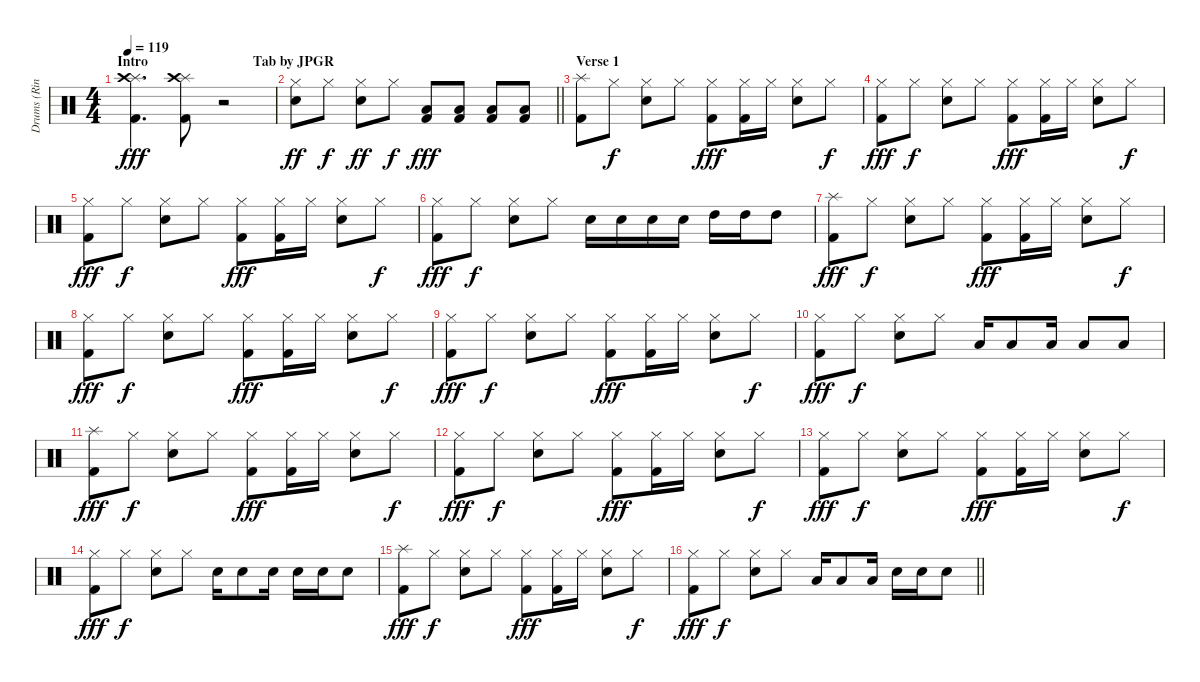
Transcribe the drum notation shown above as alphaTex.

\track ("Drums (Ringo Starr)" "Drums (Rin") {instrument percussion}
\staff {score}
\articulation defaults
\ts (4 4)
\section ("" "Intro                              Tab by JPGR")
\tempo 119
\clef neutral
\ks c
("Splash (hit)" "Crash high (hit)" "Kick (hit) 2").4{d dy fff} ("Splash (hit)" "Crash high (hit)" "Kick (hit) 2").8 r.2 |
\barLineRight lightlight
("Hi-Hat (closed)" "Snare (hit) 2").8{dy ff} "Hi-Hat (closed)".8{dy f} ("Hi-Hat (closed)" "Snare (hit) 2").8{dy ff} "Hi-Hat (closed)".8{dy f} ("Low Floor Tom (hit)" "Kick (hit) 2").8{dy fff} ("Low Floor Tom (hit)" "Kick (hit) 2").8 ("Low Floor Tom (hit)" "Kick (hit) 2").8 ("Low Floor Tom (hit)" "Kick (hit) 2").8 |
\section ("" "Verse 1")
("Splash (hit)" "Kick (hit) 2").8 "Hi-Hat (closed)".8{dy f} ("Hi-Hat (closed)" "Snare (hit) 2").8 "Hi-Hat (closed)".8 ("Hi-Hat (closed)" "Kick (hit) 2").8{dy fff} ("Hi-Hat (closed)" "Kick (hit) 2").16 "Hi-Hat (closed)".16 ("Hi-Hat (closed)" "Snare (hit) 2").8 "Hi-Hat (closed)".8{dy f} |
("Hi-Hat (closed)" "Kick (hit) 2").8{dy fff} "Hi-Hat (closed)".8{dy f} ("Hi-Hat (closed)" "Snare (hit) 2").8 "Hi-Hat (closed)".8 ("Hi-Hat (closed)" "Kick (hit) 2").8{dy fff} ("Hi-Hat (closed)" "Kick (hit) 2").16 "Hi-Hat (closed)".16 ("Hi-Hat (closed)" "Snare (hit) 2").8 "Hi-Hat (closed)".8{dy f} |
("Hi-Hat (closed)" "Kick (hit) 2").8{dy fff} "Hi-Hat (closed)".8{dy f} ("Hi-Hat (closed)" "Snare (hit) 2").8 "Hi-Hat (closed)".8 ("Hi-Hat (closed)" "Kick (hit) 2").8{dy fff} ("Hi-Hat (closed)" "Kick (hit) 2").16 "Hi-Hat (closed)".16 ("Hi-Hat (closed)" "Snare (hit) 2").8 "Hi-Hat (closed)".8{dy f} |
("Hi-Hat (closed)" "Kick (hit) 2").8{dy fff} "Hi-Hat (closed)".8{dy f} ("Hi-Hat (closed)" "Snare (hit) 2").8 "Hi-Hat (closed)".8 "Snare (hit) 2".16 "Snare (hit) 2".16 "Snare (hit) 2".16 "Snare (hit) 2".16 "High Tom (hit)".16 "High Tom (hit)".16 "High Tom (hit)".8 |
("Splash (hit)" "Kick (hit) 2").8{dy fff} "Hi-Hat (closed)".8{dy f} ("Hi-Hat (closed)" "Snare (hit) 2").8 "Hi-Hat (closed)".8 ("Hi-Hat (closed)" "Kick (hit) 2").8{dy fff} ("Hi-Hat (closed)" "Kick (hit) 2").16 "Hi-Hat (closed)".16 ("Hi-Hat (closed)" "Snare (hit) 2").8 "Hi-Hat (closed)".8{dy f} |
("Hi-Hat (closed)" "Kick (hit) 2").8{dy fff} "Hi-Hat (closed)".8{dy f} ("Hi-Hat (closed)" "Snare (hit) 2").8 "Hi-Hat (closed)".8 ("Hi-Hat (closed)" "Kick (hit) 2").8{dy fff} ("Hi-Hat (closed)" "Kick (hit) 2").16 "Hi-Hat (closed)".16 ("Hi-Hat (closed)" "Snare (hit) 2").8 "Hi-Hat (closed)".8{dy f} |
("Hi-Hat (closed)" "Kick (hit) 2").8{dy fff} "Hi-Hat (closed)".8{dy f} ("Hi-Hat (closed)" "Snare (hit) 2").8 "Hi-Hat (closed)".8 ("Hi-Hat (closed)" "Kick (hit) 2").8{dy fff} ("Hi-Hat (closed)" "Kick (hit) 2").16 "Hi-Hat (closed)".16 ("Hi-Hat (closed)" "Snare (hit) 2").8 "Hi-Hat (closed)".8{dy f} |
("Hi-Hat (closed)" "Kick (hit) 2").8{dy fff} "Hi-Hat (closed)".8{dy f} ("Hi-Hat (closed)" "Snare (hit) 2").8 "Hi-Hat (closed)".8 "Low Floor Tom (hit)".16 "Low Floor Tom (hit)".8 "Low Floor Tom (hit)".16 "Low Floor Tom (hit)".8 "Low Floor Tom (hit)".8 |
("Splash (hit)" "Kick (hit) 2").8{dy fff} "Hi-Hat (closed)".8{dy f} ("Hi-Hat (closed)" "Snare (hit) 2").8 "Hi-Hat (closed)".8 ("Hi-Hat (closed)" "Kick (hit) 2").8{dy fff} ("Hi-Hat (closed)" "Kick (hit) 2").16 "Hi-Hat (closed)".16 ("Hi-Hat (closed)" "Snare (hit) 2").8 "Hi-Hat (closed)".8{dy f} |
("Hi-Hat (closed)" "Kick (hit) 2").8{dy fff} "Hi-Hat (closed)".8{dy f} ("Hi-Hat (closed)" "Snare (hit) 2").8 "Hi-Hat (closed)".8 ("Hi-Hat (closed)" "Kick (hit) 2").8{dy fff} ("Hi-Hat (closed)" "Kick (hit) 2").16 "Hi-Hat (closed)".16 ("Hi-Hat (closed)" "Snare (hit) 2").8 "Hi-Hat (closed)".8{dy f} |
("Hi-Hat (closed)" "Kick (hit) 2").8{dy fff} "Hi-Hat (closed)".8{dy f} ("Hi-Hat (closed)" "Snare (hit) 2").8 "Hi-Hat (closed)".8 ("Hi-Hat (closed)" "Kick (hit) 2").8{dy fff} ("Hi-Hat (closed)" "Kick (hit) 2").16 "Hi-Hat (closed)".16 ("Hi-Hat (closed)" "Snare (hit) 2").8 "Hi-Hat (closed)".8{dy f} |
("Hi-Hat (closed)" "Kick (hit) 2").8{dy fff} "Hi-Hat (closed)".8{dy f} ("Hi-Hat (closed)" "Snare (hit) 2").8 "Hi-Hat (closed)".8 "Snare (hit) 2".16 "Snare (hit) 2".8 "Snare (hit) 2".16 "Snare (hit) 2".16 "Snare (hit) 2".16 "Snare (hit) 2".8 |
("Splash (hit)" "Kick (hit) 2").8{dy fff} "Hi-Hat (closed)".8{dy f} ("Hi-Hat (closed)" "Snare (hit) 2").8 "Hi-Hat (closed)".8 ("Hi-Hat (closed)" "Kick (hit) 2").8{dy fff} ("Hi-Hat (closed)" "Kick (hit) 2").16 "Hi-Hat (closed)".16 ("Hi-Hat (closed)" "Snare (hit) 2").8 "Hi-Hat (closed)".8{dy f} |
\barLineRight lightlight
("Hi-Hat (closed)" "Kick (hit) 2").8{dy fff} "Hi-Hat (closed)".8{dy f} ("Hi-Hat (closed)" "Snare (hit) 2").8 "Hi-Hat (closed)".8 "Low Floor Tom (hit)".16 "Low Floor Tom (hit)".8 "Low Floor Tom (hit)".16 "Snare (hit) 2".16 "Snare (hit) 2".16 "Snare (hit) 2".8
